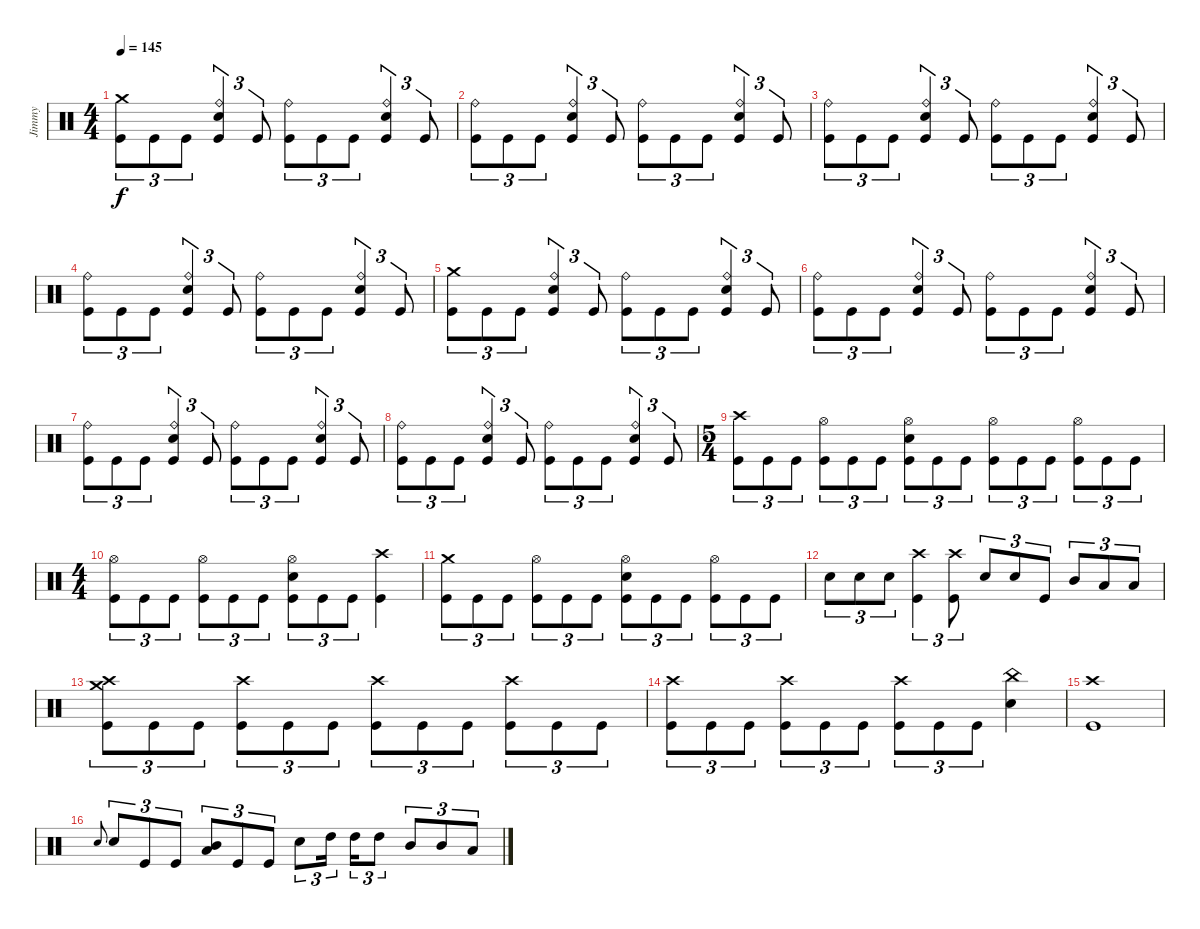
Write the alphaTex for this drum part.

\track ("Jimmy" "Jimmy") {instrument percussion}
\staff {score}
\articulation defaults
\ts (4 4)
\tempo 145
\clef neutral
\ks c
("Crash medium (hit)" "Kick (hit)").8{tu (3 2) dy f} "Kick (hit)".8{tu (3 2)} "Kick (hit)".8{tu (3 2)} ("Kick (hit)" "Ride (bell)" "Snare (hit) 2").4{tu (3 2)} "Kick (hit)".8{tu (3 2)} ("Ride (bell)" "Kick (hit)").8{tu (3 2)} "Kick (hit)".8{tu (3 2)} "Kick (hit)".8{tu (3 2)} ("Kick (hit)" "Ride (bell)" "Snare (hit) 2").4{tu (3 2)} "Kick (hit)".8{tu (3 2)} |
("Ride (bell)" "Kick (hit)").8{tu (3 2)} "Kick (hit)".8{tu (3 2)} "Kick (hit)".8{tu (3 2)} ("Kick (hit)" "Ride (bell)" "Snare (hit) 2").4{tu (3 2)} "Kick (hit)".8{tu (3 2)} ("Ride (bell)" "Kick (hit)").8{tu (3 2)} "Kick (hit)".8{tu (3 2)} "Kick (hit)".8{tu (3 2)} ("Kick (hit)" "Ride (bell)" "Snare (hit) 2").4{tu (3 2)} "Kick (hit)".8{tu (3 2)} |
("Ride (bell)" "Kick (hit)").8{tu (3 2)} "Kick (hit)".8{tu (3 2)} "Kick (hit)".8{tu (3 2)} ("Kick (hit)" "Ride (bell)" "Snare (hit) 2").4{tu (3 2)} "Kick (hit)".8{tu (3 2)} ("Ride (bell)" "Kick (hit)").8{tu (3 2)} "Kick (hit)".8{tu (3 2)} "Kick (hit)".8{tu (3 2)} ("Kick (hit)" "Ride (bell)" "Snare (hit) 2").4{tu (3 2)} "Kick (hit)".8{tu (3 2)} |
("Ride (bell)" "Kick (hit)").8{tu (3 2)} "Kick (hit)".8{tu (3 2)} "Kick (hit)".8{tu (3 2)} ("Kick (hit)" "Ride (bell)" "Snare (hit) 2").4{tu (3 2)} "Kick (hit)".8{tu (3 2)} ("Ride (bell)" "Kick (hit)").8{tu (3 2)} "Kick (hit)".8{tu (3 2)} "Kick (hit)".8{tu (3 2)} ("Kick (hit)" "Ride (bell)" "Snare (hit) 2").4{tu (3 2)} "Kick (hit)".8{tu (3 2)} |
("Crash medium (hit)" "Kick (hit)").8{tu (3 2)} "Kick (hit)".8{tu (3 2)} "Kick (hit)".8{tu (3 2)} ("Kick (hit)" "Ride (bell)" "Snare (hit) 2").4{tu (3 2)} "Kick (hit)".8{tu (3 2)} ("Ride (bell)" "Kick (hit)").8{tu (3 2)} "Kick (hit)".8{tu (3 2)} "Kick (hit)".8{tu (3 2)} ("Kick (hit)" "Ride (bell)" "Snare (hit) 2").4{tu (3 2)} "Kick (hit)".8{tu (3 2)} |
("Ride (bell)" "Kick (hit)").8{tu (3 2)} "Kick (hit)".8{tu (3 2)} "Kick (hit)".8{tu (3 2)} ("Kick (hit)" "Ride (bell)" "Snare (hit) 2").4{tu (3 2)} "Kick (hit)".8{tu (3 2)} ("Ride (bell)" "Kick (hit)").8{tu (3 2)} "Kick (hit)".8{tu (3 2)} "Kick (hit)".8{tu (3 2)} ("Kick (hit)" "Ride (bell)" "Snare (hit) 2").4{tu (3 2)} "Kick (hit)".8{tu (3 2)} |
("Ride (bell)" "Kick (hit)").8{tu (3 2)} "Kick (hit)".8{tu (3 2)} "Kick (hit)".8{tu (3 2)} ("Kick (hit)" "Ride (bell)" "Snare (hit) 2").4{tu (3 2)} "Kick (hit)".8{tu (3 2)} ("Ride (bell)" "Kick (hit)").8{tu (3 2)} "Kick (hit)".8{tu (3 2)} "Kick (hit)".8{tu (3 2)} ("Kick (hit)" "Ride (bell)" "Snare (hit) 2").4{tu (3 2)} "Kick (hit)".8{tu (3 2)} |
("Ride (bell)" "Kick (hit)").8{tu (3 2)} "Kick (hit)".8{tu (3 2)} "Kick (hit)".8{tu (3 2)} ("Kick (hit)" "Ride (bell)" "Snare (hit) 2").4{tu (3 2)} "Kick (hit)".8{tu (3 2)} ("Ride (bell)" "Kick (hit)").8{tu (3 2)} "Kick (hit)".8{tu (3 2)} "Kick (hit)".8{tu (3 2)} ("Kick (hit)" "Ride (bell)" "Snare (hit) 2").4{tu (3 2)} "Kick (hit)".8{tu (3 2)} |
\ts (5 4)
("Kick (hit)" "Crash high (hit)").8{tu (3 2)} "Kick (hit)".8{tu (3 2)} "Kick (hit)".8{tu (3 2)} ("Kick (hit)" "Hi-Hat (open)").8{tu (3 2)} "Kick (hit)".8{tu (3 2)} "Kick (hit)".8{tu (3 2)} ("Kick (hit)" "Hi-Hat (open)" "Snare (hit) 2").8{tu (3 2)} "Kick (hit)".8{tu (3 2)} "Kick (hit)".8{tu (3 2)} ("Kick (hit)" "Hi-Hat (open)").8{tu (3 2)} "Kick (hit)".8{tu (3 2)} "Kick (hit)".8{tu (3 2)} ("Kick (hit)" "Hi-Hat (open)").8{tu (3 2)} "Kick (hit)".8{tu (3 2)} "Kick (hit)".8{tu (3 2)} |
\ts (4 4)
("Hi-Hat (open)" "Kick (hit)").8{tu (3 2)} "Kick (hit)".8{tu (3 2)} "Kick (hit)".8{tu (3 2)} ("Kick (hit)" "Hi-Hat (open)").8{tu (3 2)} "Kick (hit)".8{tu (3 2)} "Kick (hit)".8{tu (3 2)} ("Kick (hit)" "Hi-Hat (open)" "Snare (hit) 2").8{tu (3 2)} "Kick (hit)".8{tu (3 2)} "Kick (hit)".8{tu (3 2)} ("Kick (hit)" "Crash high (hit)").4 |
("Crash medium (hit)" "Kick (hit)").8{tu (3 2)} "Kick (hit)".8{tu (3 2)} "Kick (hit)".8{tu (3 2)} ("Kick (hit)" "Hi-Hat (open)").8{tu (3 2)} "Kick (hit)".8{tu (3 2)} "Kick (hit)".8{tu (3 2)} ("Kick (hit)" "Hi-Hat (open)" "Snare (hit) 2").8{tu (3 2)} "Kick (hit)".8{tu (3 2)} "Kick (hit)".8{tu (3 2)} ("Kick (hit)" "Hi-Hat (open)").8{tu (3 2)} "Kick (hit)".8{tu (3 2)} "Kick (hit)".8{tu (3 2)} |
"Snare (hit) 2".8{tu (3 2)} "Snare (hit) 2".8{tu (3 2)} "Snare (hit) 2".8{tu (3 2)} ("Kick (hit)" "Crash high (hit)").4{tu (3 2)} ("Crash high (hit)" "Kick (hit)").8{tu (3 2)} "Snare (hit) 2".8{tu (3 2)} "Snare (hit) 2".8{tu (3 2)} "Kick (hit)".8{tu (3 2)} "Mid Tom (hit)".8{tu (3 2)} "Low Tom (hit)".8{tu (3 2)} "Low Tom (hit)".8{tu (3 2)} |
("Kick (hit)" "Crash high (hit)" "Crash medium (hit)").8{tu (3 2)} "Kick (hit)".8{tu (3 2)} "Kick (hit)".8{tu (3 2)} ("Kick (hit)" "Crash high (hit)").8{tu (3 2)} "Kick (hit)".8{tu (3 2)} "Kick (hit)".8{tu (3 2)} ("Kick (hit)" "Crash high (hit)").8{tu (3 2)} "Kick (hit)".8{tu (3 2)} "Kick (hit)".8{tu (3 2)} ("Kick (hit)" "Crash high (hit)").8{tu (3 2)} "Kick (hit)".8{tu (3 2)} "Kick (hit)".8{tu (3 2)} |
("Kick (hit)" "Crash high (hit)").8{tu (3 2)} "Kick (hit)".8{tu (3 2)} "Kick (hit)".8{tu (3 2)} ("Kick (hit)" "Crash high (hit)").8{tu (3 2)} "Kick (hit)".8{tu (3 2)} "Kick (hit)".8{tu (3 2)} ("Kick (hit)" "Crash high (hit)").8{tu (3 2)} "Kick (hit)".8{tu (3 2)} "Kick (hit)".8{tu (3 2)} ("China (hit)" "Snare (hit) 2").4 |
("Kick (hit)" "Crash high (hit)").1 |
"Snare (hit) 2".8{gr onbeat} "Snare (hit) 2".8{tu (3 2)} "Kick (hit)".8{tu (3 2)} "Kick (hit)".8{tu (3 2)} ("Mid Tom (hit)" "Low Tom (hit)").8{tu (3 2)} "Kick (hit)".8{tu (3 2)} "Kick (hit)".8{tu (3 2)} "Snare (hit) 2".8{tu (3 2)} "High Tom (hit)".16{tu (3 2) beam splitsecondary} "High Tom (hit)".16{tu (3 2)} "High Tom (hit)".8{tu (3 2)} "Mid Tom (hit)".8{tu (3 2)} "Mid Tom (hit)".8{tu (3 2)} "Low Tom (hit)".8{tu (3 2)}
